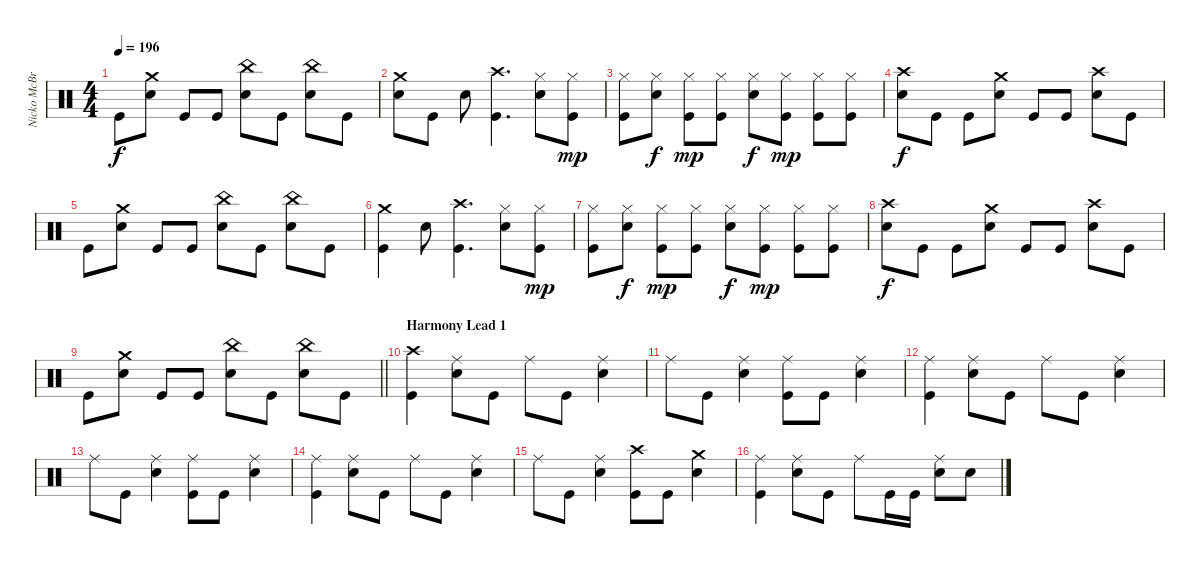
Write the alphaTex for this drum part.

\track ("Nicko McBrain" "Nicko McBr") {instrument percussion}
\staff {score}
\articulation defaults
\ts (4 4)
\tempo 196
\clef neutral
\ks c "Kick (hit)".8{dy f}
("Crash medium (hit)" "Electric Snare (hit)").8 "Kick (hit)".8 "Kick (hit)".8 ("China (hit)" "Electric Snare (hit)").8 "Kick (hit)".8 ("China (hit)" "Electric Snare (hit)").8 "Kick (hit)".8 |
("Crash medium (hit)" "Electric Snare (hit)").8 "Kick (hit)".8 "Electric Snare (hit)".8 ("Crash high (hit)" "Kick (hit)").4{d} ("Hi-Hat (closed)" "Electric Snare (hit)").8 ("Hi-Hat (closed)" "Kick (hit)").8{dy mp} |
("Hi-Hat (closed)" "Kick (hit)").8 ("Hi-Hat (closed)" "Electric Snare (hit)").8{dy f} ("Hi-Hat (closed)" "Kick (hit)").8{dy mp} ("Hi-Hat (closed)" "Kick (hit)").8 ("Hi-Hat (closed)" "Electric Snare (hit)").8{dy f} ("Hi-Hat (closed)" "Kick (hit)").8{dy mp} ("Hi-Hat (closed)" "Kick (hit)").8 ("Hi-Hat (closed)" "Kick (hit)").8 |
("Crash high (hit)" "Electric Snare (hit)").8{dy f} "Kick (hit)".8 "Kick (hit)".8 ("Crash medium (hit)" "Electric Snare (hit)").8 "Kick (hit)".8 "Kick (hit)".8 ("Crash high (hit)" "Electric Snare (hit)").8 "Kick (hit)".8 |
"Kick (hit)".8 ("Crash medium (hit)" "Electric Snare (hit)").8 "Kick (hit)".8 "Kick (hit)".8 ("China (hit)" "Electric Snare (hit)").8 "Kick (hit)".8 ("China (hit)" "Electric Snare (hit)").8 "Kick (hit)".8 |
("Crash medium (hit)" "Kick (hit)").4 "Electric Snare (hit)".8 ("Crash high (hit)" "Kick (hit)").4{d} ("Hi-Hat (closed)" "Electric Snare (hit)").8 ("Hi-Hat (closed)" "Kick (hit)").8{dy mp} |
("Hi-Hat (closed)" "Kick (hit)").8 ("Hi-Hat (closed)" "Electric Snare (hit)").8{dy f} ("Hi-Hat (closed)" "Kick (hit)").8{dy mp} ("Hi-Hat (closed)" "Kick (hit)").8 ("Hi-Hat (closed)" "Electric Snare (hit)").8{dy f} ("Hi-Hat (closed)" "Kick (hit)").8{dy mp} ("Hi-Hat (closed)" "Kick (hit)").8 ("Hi-Hat (closed)" "Kick (hit)").8 |
("Crash high (hit)" "Electric Snare (hit)").8{dy f} "Kick (hit)".8 "Kick (hit)".8 ("Crash medium (hit)" "Electric Snare (hit)").8 "Kick (hit)".8 "Kick (hit)".8 ("Crash high (hit)" "Electric Snare (hit)").8 "Kick (hit)".8 |
\barLineRight lightlight "Kick (hit)".8
("Crash medium (hit)" "Electric Snare (hit)").8 "Kick (hit)".8 "Kick (hit)".8 ("China (hit)" "Electric Snare (hit)").8 "Kick (hit)".8 ("China (hit)" "Electric Snare (hit)").8 "Kick (hit)".8 |
\section ("" "Harmony Lead 1")
("Crash high (hit)" "Kick (hit)").4 ("Ride (middle)" "Electric Snare (hit)").8 "Kick (hit)".8 "Ride (middle)".8 "Kick (hit)".8 ("Ride (middle)" "Electric Snare (hit)").4 |
"Ride (middle)".8 "Kick (hit)".8 ("Ride (middle)" "Electric Snare (hit)").4 ("Ride (middle)" "Kick (hit)").8 "Kick (hit)".8 ("Ride (middle)" "Electric Snare (hit)").4 |
("Ride (middle)" "Kick (hit)").4 ("Ride (middle)" "Electric Snare (hit)").8 "Kick (hit)".8 "Ride (middle)".8 "Kick (hit)".8 ("Ride (middle)" "Electric Snare (hit)").4 |
"Ride (middle)".8 "Kick (hit)".8 ("Ride (middle)" "Electric Snare (hit)").4 ("Ride (middle)" "Kick (hit)").8 "Kick (hit)".8 ("Ride (middle)" "Electric Snare (hit)").4 |
("Ride (middle)" "Kick (hit)").4 ("Ride (middle)" "Electric Snare (hit)").8 "Kick (hit)".8 "Ride (middle)".8 "Kick (hit)".8 ("Ride (middle)" "Electric Snare (hit)").4 |
"Ride (middle)".8 "Kick (hit)".8 ("Ride (middle)" "Electric Snare (hit)").4 ("Crash high (hit)" "Kick (hit)").8 "Kick (hit)".8 ("Crash medium (hit)" "Electric Snare (hit)").4 |
("Ride (middle)" "Kick (hit)").4 ("Ride (middle)" "Electric Snare (hit)").8 "Kick (hit)".8 "Ride (middle)".8 "Kick (hit)".16 "Kick (hit)".16 ("Ride (middle)" "Electric Snare (hit)").8 "Electric Snare (hit)".8
